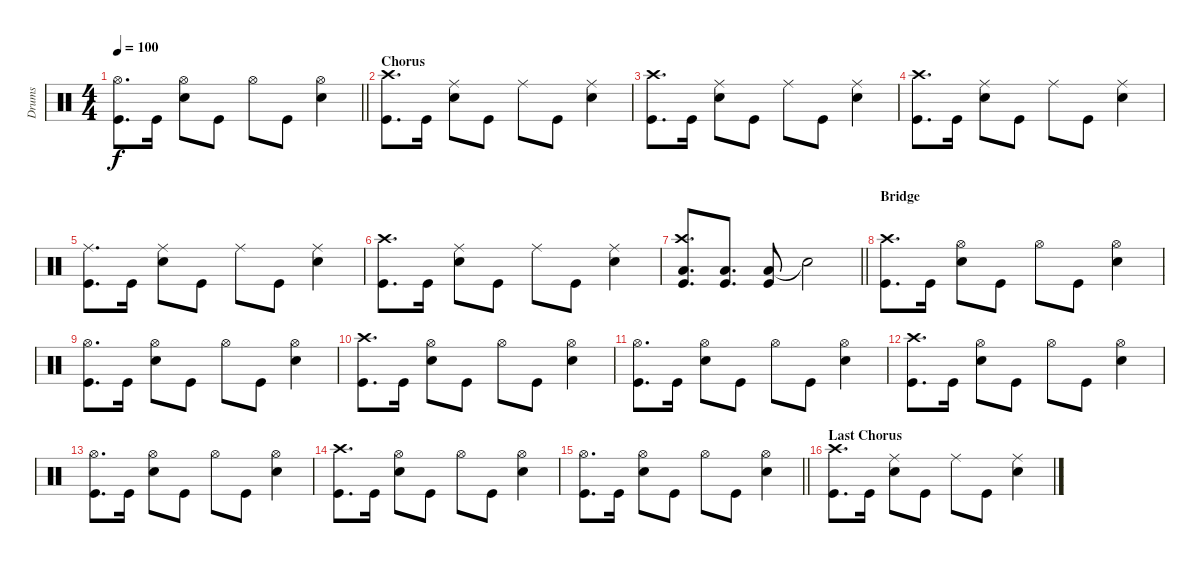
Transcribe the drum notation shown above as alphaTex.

\track ("Drums" "Drums") {instrument percussion}
\staff {score}
\articulation defaults
\ts (4 4)
\tempo 100
\clef neutral
\barLineRight lightlight
\ks c
("Hi-Hat (open)" "Kick (hit)").8{d dy f} "Kick (hit)".16 ("Hi-Hat (open)" "Snare (hit) 2").8 "Kick (hit)".8 "Hi-Hat (open)".8 "Kick (hit)".8 ("Hi-Hat (open)" "Snare (hit) 2").4 |
\section ("" "Chorus")
("Crash high (hit)" "Kick (hit)").8{d} "Kick (hit)".16 ("Ride (middle)" "Snare (hit) 2").8 "Kick (hit)".8 "Ride (middle)".8 "Kick (hit)".8 ("Ride (middle)" "Snare (hit) 2").4 |
("Crash high (hit)" "Kick (hit)").8{d} "Kick (hit)".16 ("Ride (middle)" "Snare (hit) 2").8 "Kick (hit)".8 "Ride (middle)".8 "Kick (hit)".8 ("Ride (middle)" "Snare (hit) 2").4 |
("Crash high (hit)" "Kick (hit)").8{d} "Kick (hit)".16 ("Ride (middle)" "Snare (hit) 2").8 "Kick (hit)".8 "Ride (middle)".8 "Kick (hit)".8 ("Ride (middle)" "Snare (hit) 2").4 |
("Ride (middle)" "Kick (hit)").8{d} "Kick (hit)".16 ("Ride (middle)" "Snare (hit) 2").8 "Kick (hit)".8 "Ride (middle)".8 "Kick (hit)".8 ("Ride (middle)" "Snare (hit) 2").4 |
("Crash high (hit)" "Kick (hit)").8{d} "Kick (hit)".16 ("Ride (middle)" "Snare (hit) 2").8 "Kick (hit)".8 "Ride (middle)".8 "Kick (hit)".8 ("Ride (middle)" "Snare (hit) 2").4 |
\barLineRight lightlight
("Crash high (hit)" "Low Tom (hit)" "Kick (hit)").8{d} ("Low Tom (hit)" "Kick (hit)").8{d} ("Low Tom (hit)" "Kick (hit)").8 "Snare (hit)"{t}.2 |
\section ("" "Bridge")
("Crash high (hit)" "Kick (hit)").8{d} "Kick (hit)".16 ("Hi-Hat (open)" "Snare (hit) 2").8 "Kick (hit)".8 "Hi-Hat (open)".8 "Kick (hit)".8 ("Hi-Hat (open)" "Snare (hit) 2").4 |
("Hi-Hat (open)" "Kick (hit)").8{d} "Kick (hit)".16 ("Hi-Hat (open)" "Snare (hit) 2").8 "Kick (hit)".8 "Hi-Hat (open)".8 "Kick (hit)".8 ("Hi-Hat (open)" "Snare (hit) 2").4 |
("Crash high (hit)" "Kick (hit)").8{d} "Kick (hit)".16 ("Hi-Hat (open)" "Snare (hit) 2").8 "Kick (hit)".8 "Hi-Hat (open)".8 "Kick (hit)".8 ("Hi-Hat (open)" "Snare (hit) 2").4 |
("Hi-Hat (open)" "Kick (hit)").8{d} "Kick (hit)".16 ("Hi-Hat (open)" "Snare (hit) 2").8 "Kick (hit)".8 "Hi-Hat (open)".8 "Kick (hit)".8 ("Hi-Hat (open)" "Snare (hit) 2").4 |
("Crash high (hit)" "Kick (hit)").8{d} "Kick (hit)".16 ("Hi-Hat (open)" "Snare (hit) 2").8 "Kick (hit)".8 "Hi-Hat (open)".8 "Kick (hit)".8 ("Hi-Hat (open)" "Snare (hit) 2").4 |
("Hi-Hat (open)" "Kick (hit)").8{d} "Kick (hit)".16 ("Hi-Hat (open)" "Snare (hit) 2").8 "Kick (hit)".8 "Hi-Hat (open)".8 "Kick (hit)".8 ("Hi-Hat (open)" "Snare (hit) 2").4 |
("Crash high (hit)" "Kick (hit)").8{d} "Kick (hit)".16 ("Hi-Hat (open)" "Snare (hit) 2").8 "Kick (hit)".8 "Hi-Hat (open)".8 "Kick (hit)".8 ("Hi-Hat (open)" "Snare (hit) 2").4 |
\barLineRight lightlight
("Hi-Hat (open)" "Kick (hit)").8{d} "Kick (hit)".16 ("Hi-Hat (open)" "Snare (hit) 2").8 "Kick (hit)".8 "Hi-Hat (open)".8 "Kick (hit)".8 ("Hi-Hat (open)" "Snare (hit) 2").4 |
\section ("" "Last Chorus")
("Crash high (hit)" "Kick (hit)").8{d} "Kick (hit)".16 ("Ride (middle)" "Snare (hit) 2").8 "Kick (hit)".8 "Ride (middle)".8 "Kick (hit)".8 ("Ride (middle)" "Snare (hit) 2").4
